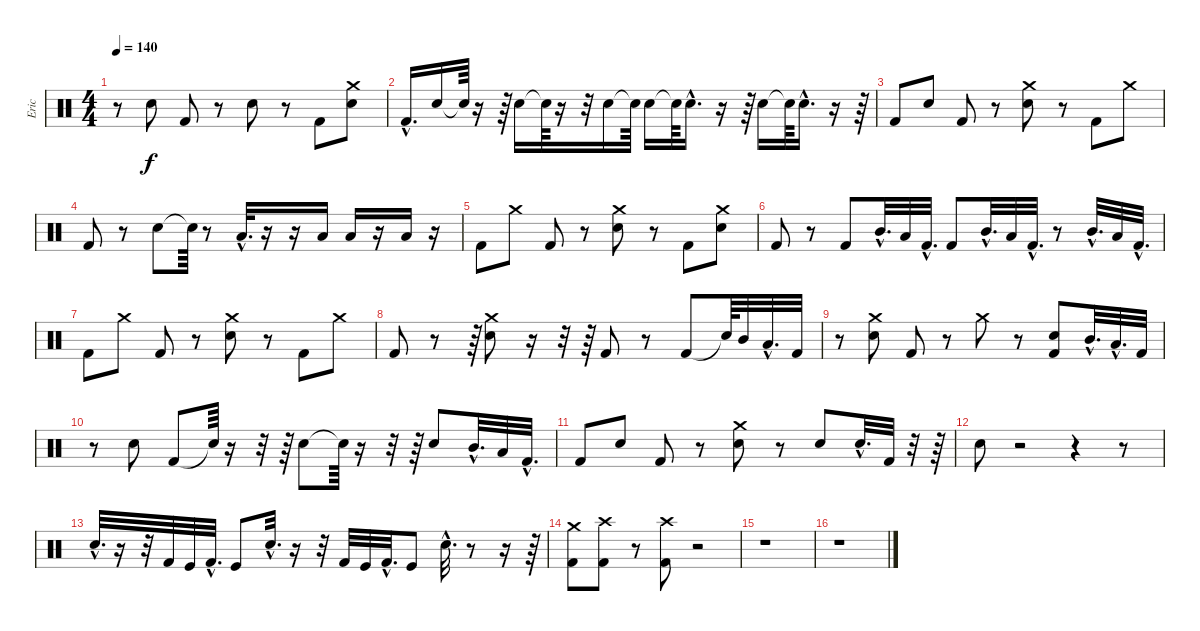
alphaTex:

\track ("Eric" "Eric") {instrument percussion}
\staff {score}
\articulation defaults
\ts (4 4)
\tempo 140
\clef neutral
\ks c
r.8{dy f} "Electric Snare (hit)".8 "Kick (hit) 2".8 r.8 "Electric Snare (hit)".8 r.8 "Kick (hit) 2".8 ("Crash medium (hit)" "Electric Snare (hit)").8 |
"Kick (hit) 2"{hac}.16{d} "Electric Snare (hit)".16 "Snare (hit)"{t}.64 r.16 r.64 "Electric Snare (hit)".16 "Snare (hit)"{t}.64 r.16 r.32 "Electric Snare (hit)".16 "Snare (hit)"{t}.64 "Electric Snare (hit)".16 "Snare (hit)"{t}.64 "Electric Snare (hit)"{hac}.16{d} r.16 r.64 "Electric Snare (hit)".16 "Snare (hit)"{t}.64 "Electric Snare (hit)"{hac}.16{d} r.16 r.64 |
"Kick (hit) 2".8 "Electric Snare (hit)".8 "Kick (hit) 2".8 r.8 ("Crash medium (hit)" "Electric Snare (hit)").8 r.8 "Kick (hit) 2".8 "Crash medium (hit)".8 |
"Kick (hit) 2".8 r.8 "Electric Snare (hit)".8 "Snare (hit)"{t}.64 r.8 "Low Tom (hit)"{hac}.32{d} r.16 r.16 "Low Tom (hit)".16 "Low Tom (hit)".16 r.16 "Low Tom (hit)".16 r.16 |
"Kick (hit) 2".8 "Crash medium (hit)".8 "Kick (hit) 2".8 r.8 ("Electric Snare (hit)" "Crash medium (hit)").8 r.8 "Kick (hit) 2".8 ("Crash medium (hit)" "Electric Snare (hit)").8 |
"Kick (hit) 2".8 r.8 "Kick (hit) 2".8 "Mid Tom (hit)"{hac}.32{d} "Low Tom (hit)".32 "Kick (hit) 2"{hac}.32{d} "Kick (hit) 2".8 "Mid Tom (hit)"{hac}.32{d} "Low Tom (hit)".32 "Kick (hit) 2"{hac}.32{d} r.8 "Mid Tom (hit)"{hac}.32{d} "Low Tom (hit)".32 "Kick (hit) 2"{hac}.32{d} |
"Kick (hit) 2".8 "Crash medium (hit)".8 "Kick (hit) 2".8 r.8 ("Crash medium (hit)" "Electric Snare (hit)").8 r.8 "Kick (hit) 2".8 "Crash medium (hit)".8 |
"Kick (hit) 2".8 r.8 r.64 ("Crash medium (hit)" "Electric Snare (hit)").8 r.16 r.32 r.64 "Kick (hit) 2".8 r.8 "Kick (hit) 2".8 "Snare (hit)"{t}.64 "Mid Tom (hit)".32 "Low Tom (hit)"{hac}.32{d} "Kick (hit) 2".32 |
r.8 ("Crash medium (hit)" "Electric Snare (hit)").8 "Kick (hit) 2".8 r.8 "Crash medium (hit)".8 r.8 ("Electric Snare (hit)" "Kick (hit) 2").8 "Mid Tom (hit)"{hac}.32{d} "Low Tom (hit)"{hac}.32{d} "Kick (hit) 2".32 |
r.8 "Electric Snare (hit)".8 "Kick (hit) 2".8 "Snare (hit)"{t}.64 r.16 r.32 r.64 "Electric Snare (hit)".8 "Snare (hit)"{t}.64 r.16 r.32 r.64 "Electric Snare (hit)".8 "Mid Tom (hit)"{hac}.32{d} "Low Tom (hit)".32 "Kick (hit) 2"{hac}.32{d} |
"Kick (hit) 2".8 "Electric Snare (hit)".8 "Kick (hit) 2".8 r.8 ("Crash medium (hit)" "Electric Snare (hit)").8 r.8 "Electric Snare (hit)".8 "Electric Snare (hit)"{hac}.32{d} "Kick (hit) 2".32 r.32 r.64 |
"Electric Snare (hit)".8 r.2 r.4 r.8 |
"Electric Snare (hit)"{hac}.32{d} r.16 r.32 "Kick (hit) 2".32 "Kick (hit)".32 "Kick (hit) 2"{hac}.32{d} "Kick (hit)".8 "Electric Snare (hit)"{hac}.32{d} r.16 r.32 "Kick (hit) 2".32 "Kick (hit)".32 "Kick (hit) 2"{hac}.32{d} "Kick (hit)".8 "Electric Snare (hit)"{hac}.32{d} r.8 r.16 r.64 |
("Crash medium (hit)" "Kick (hit) 2").8 ("Crash high (hit)" "Kick (hit) 2").8 r.8 ("Crash high (hit)" "Kick (hit) 2").8 r.2 |
r.1 |
r.1
